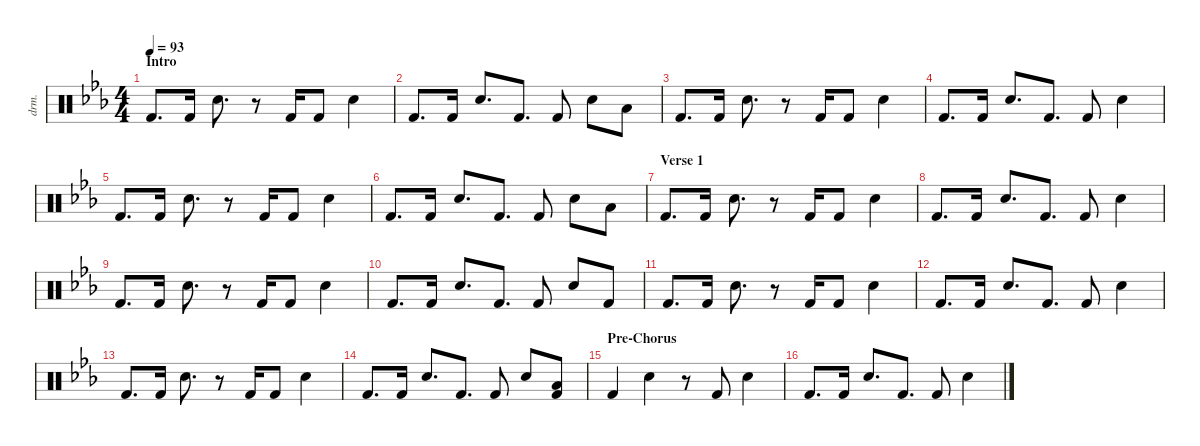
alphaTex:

\defaultSystemsLayout 4
\hideDynamics
\bracketExtendMode nobrackets
\otherSystemsTrackNameOrientation horizontal
\track ("Drumkit" "drm.") {instrument percussion}
\staff {score}
\articulation defaults
\ts (4 4)
\section ("" "Intro")
\tempo 93
\clef neutral
\ks cminor "Kick (hit) 2"{acc forcenatural}.8{d dy mf} "Kick (hit) 2"{acc forcenatural}.16 "Snare (hit) 2"{acc forcenatural}.8{d}
r.8 "Kick (hit) 2"{acc forcenatural}.16 "Kick (hit) 2"{acc forcenatural}.8 "Snare (hit) 2"{acc forcenatural}.4 |
"Kick (hit) 2"{acc forcenatural}.8{d} "Kick (hit) 2"{acc forcenatural}.16 "Snare (hit) 2"{acc forcenatural}.8{d} "Kick (hit) 2"{acc forcenatural}.8{d} "Kick (hit) 2"{acc forcenatural}.8 "Snare (hit) 2"{acc forcenatural}.8 "Low Tom (hit)"{acc forcenatural}.8 |
"Kick (hit) 2"{acc forcenatural}.8{d} "Kick (hit) 2"{acc forcenatural}.16 "Snare (hit) 2"{acc forcenatural}.8{d} r.8 "Kick (hit) 2"{acc forcenatural}.16 "Kick (hit) 2"{acc forcenatural}.8 "Snare (hit) 2"{acc forcenatural}.4 |
"Kick (hit) 2"{acc forcenatural}.8{d} "Kick (hit) 2"{acc forcenatural}.16 "Snare (hit) 2"{acc forcenatural}.8{d} "Kick (hit) 2"{acc forcenatural}.8{d} "Kick (hit) 2"{acc forcenatural}.8 "Snare (hit) 2"{acc forcenatural}.4 |
"Kick (hit) 2"{acc forcenatural}.8{d} "Kick (hit) 2"{acc forcenatural}.16 "Snare (hit) 2"{acc forcenatural}.8{d} r.8 "Kick (hit) 2"{acc forcenatural}.16 "Kick (hit) 2"{acc forcenatural}.8 "Snare (hit) 2"{acc forcenatural}.4 |
"Kick (hit) 2"{acc forcenatural}.8{d} "Kick (hit) 2"{acc forcenatural}.16 "Snare (hit) 2"{acc forcenatural}.8{d} "Kick (hit) 2"{acc forcenatural}.8{d} "Kick (hit) 2"{acc forcenatural}.8 "Snare (hit) 2"{acc forcenatural}.8 "Low Tom (hit)"{acc forcenatural}.8 |
\section ("" "Verse 1")
"Kick (hit) 2"{acc forcenatural}.8{d} "Kick (hit) 2"{acc forcenatural}.16 "Snare (hit) 2"{acc forcenatural}.8{d} r.8 "Kick (hit) 2"{acc forcenatural}.16 "Kick (hit) 2"{acc forcenatural}.8 "Snare (hit) 2"{acc forcenatural}.4 |
"Kick (hit) 2"{acc forcenatural}.8{d} "Kick (hit) 2"{acc forcenatural}.16 "Snare (hit) 2"{acc forcenatural}.8{d} "Kick (hit) 2"{acc forcenatural}.8{d} "Kick (hit) 2"{acc forcenatural}.8 "Snare (hit) 2"{acc forcenatural}.4 |
"Kick (hit) 2"{acc forcenatural}.8{d} "Kick (hit) 2"{acc forcenatural}.16 "Snare (hit) 2"{acc forcenatural}.8{d} r.8 "Kick (hit) 2"{acc forcenatural}.16 "Kick (hit) 2"{acc forcenatural}.8 "Snare (hit) 2"{acc forcenatural}.4 |
"Kick (hit) 2"{acc forcenatural}.8{d} "Kick (hit) 2"{acc forcenatural}.16 "Snare (hit) 2"{acc forcenatural}.8{d} "Kick (hit) 2"{acc forcenatural}.8{d} "Kick (hit) 2"{acc forcenatural}.8 "Snare (hit) 2"{acc forcenatural}.8 "Kick (hit) 2"{acc forcenatural}.8 |
"Kick (hit) 2"{acc forcenatural}.8{d} "Kick (hit) 2"{acc forcenatural}.16 "Snare (hit) 2"{acc forcenatural}.8{d} r.8 "Kick (hit) 2"{acc forcenatural}.16 "Kick (hit) 2"{acc forcenatural}.8 "Snare (hit) 2"{acc forcenatural}.4 |
"Kick (hit) 2"{acc forcenatural}.8{d} "Kick (hit) 2"{acc forcenatural}.16 "Snare (hit) 2"{acc forcenatural}.8{d} "Kick (hit) 2"{acc forcenatural}.8{d} "Kick (hit) 2"{acc forcenatural}.8 "Snare (hit) 2"{acc forcenatural}.4 |
"Kick (hit) 2"{acc forcenatural}.8{d} "Kick (hit) 2"{acc forcenatural}.16 "Snare (hit) 2"{acc forcenatural}.8{d} r.8 "Kick (hit) 2"{acc forcenatural}.16 "Kick (hit) 2"{acc forcenatural}.8 "Snare (hit) 2"{acc forcenatural}.4 |
"Kick (hit) 2"{acc forcenatural}.8{d} "Kick (hit) 2"{acc forcenatural}.16 "Snare (hit) 2"{acc forcenatural}.8{d} "Kick (hit) 2"{acc forcenatural}.8{d} "Kick (hit) 2"{acc forcenatural}.8 "Snare (hit) 2"{acc forcenatural}.8 ("Low Tom (hit)"{acc forcenatural} "Kick (hit) 2"{acc forcenatural}).8 |
\section ("" "Pre-Chorus")
"Kick (hit) 2"{acc forcenatural}.4 "Snare (hit) 2"{acc forcenatural}.4 r.8 "Kick (hit) 2"{acc forcenatural}.8 "Snare (hit) 2"{acc forcenatural}.4 |
"Kick (hit) 2"{acc forcenatural}.8{d} "Kick (hit) 2"{acc forcenatural}.16 "Snare (hit) 2"{acc forcenatural}.8{d} "Kick (hit) 2"{acc forcenatural}.8{d} "Kick (hit) 2"{acc forcenatural}.8 "Snare (hit) 2"{acc forcenatural}.4
